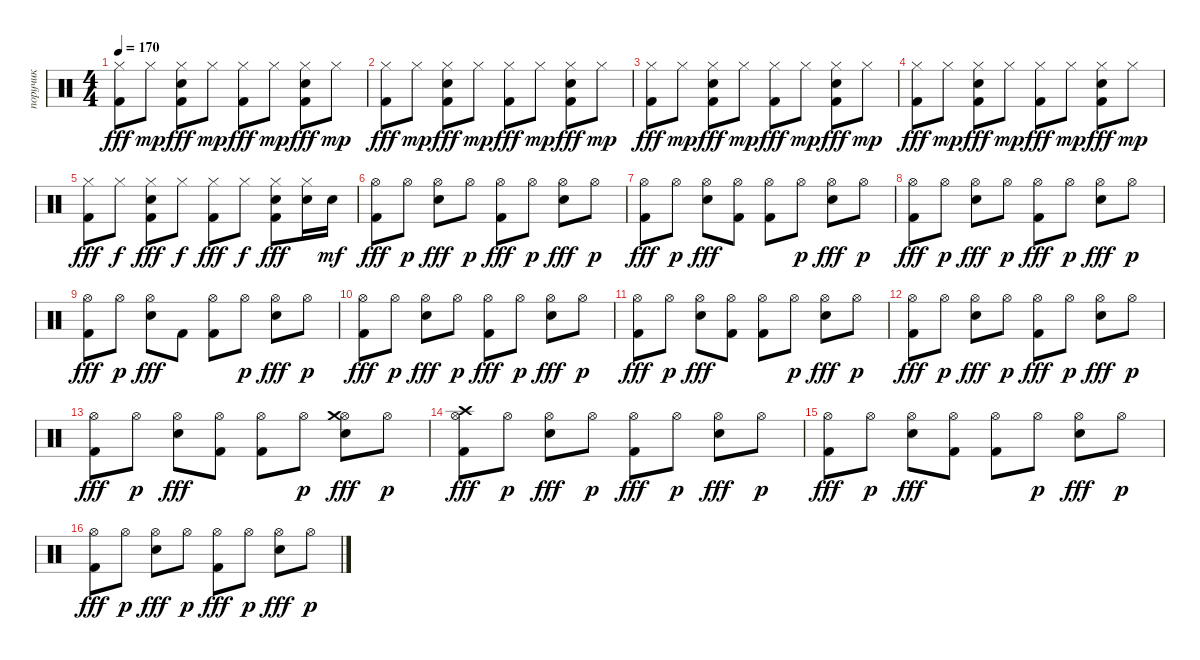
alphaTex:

\track ("поручик" "поручик") {instrument percussion}
\staff {score}
\articulation defaults
\ts (4 4)
\tempo 170
\clef neutral
\ks c
("Hi-Hat (closed)" "Kick (hit) 2").8{dy fff} "Hi-Hat (closed)".8{dy mp} ("Hi-Hat (closed)" "Electric Snare (hit)" "Kick (hit) 2").8{dy fff} "Hi-Hat (closed)".8{dy mp} ("Hi-Hat (closed)" "Kick (hit) 2").8{dy fff} "Hi-Hat (closed)".8{dy mp} ("Hi-Hat (closed)" "Electric Snare (hit)" "Kick (hit) 2").8{dy fff} "Hi-Hat (closed)".8{dy mp} |
("Hi-Hat (closed)" "Kick (hit) 2").8{dy fff} "Hi-Hat (closed)".8{dy mp} ("Hi-Hat (closed)" "Electric Snare (hit)" "Kick (hit) 2").8{dy fff} "Hi-Hat (closed)".8{dy mp} ("Hi-Hat (closed)" "Kick (hit) 2").8{dy fff} "Hi-Hat (closed)".8{dy mp} ("Hi-Hat (closed)" "Electric Snare (hit)" "Kick (hit) 2").8{dy fff} "Hi-Hat (closed)".8{dy mp} |
("Hi-Hat (closed)" "Kick (hit) 2").8{dy fff} "Hi-Hat (closed)".8{dy mp} ("Hi-Hat (closed)" "Electric Snare (hit)" "Kick (hit) 2").8{dy fff} "Hi-Hat (closed)".8{dy mp} ("Hi-Hat (closed)" "Kick (hit) 2").8{dy fff} "Hi-Hat (closed)".8{dy mp} ("Hi-Hat (closed)" "Electric Snare (hit)" "Kick (hit) 2").8{dy fff} "Hi-Hat (closed)".8{dy mp} |
("Hi-Hat (closed)" "Kick (hit) 2").8{dy fff} "Hi-Hat (closed)".8{dy mp} ("Hi-Hat (closed)" "Electric Snare (hit)" "Kick (hit) 2").8{dy fff} "Hi-Hat (closed)".8{dy mp} ("Hi-Hat (closed)" "Kick (hit) 2").8{dy fff} "Hi-Hat (closed)".8{dy mp} ("Hi-Hat (closed)" "Electric Snare (hit)" "Kick (hit) 2").8{dy fff} "Hi-Hat (closed)".8{dy mp} |
("Hi-Hat (closed)" "Kick (hit) 2").8{dy fff} "Hi-Hat (closed)".8{dy f} ("Hi-Hat (closed)" "Electric Snare (hit)" "Kick (hit) 2").8{dy fff} "Hi-Hat (closed)".8{dy f} ("Hi-Hat (closed)" "Kick (hit) 2").8{dy fff} "Hi-Hat (closed)".8{dy f} ("Hi-Hat (closed)" "Electric Snare (hit)" "Kick (hit) 2").8{dy fff} ("Hi-Hat (closed)" "Electric Snare (hit)").16 "Electric Snare (hit)".16{dy mf} |
("Hi-Hat (open)" "Kick (hit) 2").8{dy fff} "Hi-Hat (open)".8{dy p} ("Hi-Hat (open)" "Electric Snare (hit)").8{dy fff} "Hi-Hat (open)".8{dy p} ("Hi-Hat (open)" "Kick (hit) 2").8{dy fff} "Hi-Hat (open)".8{dy p} ("Hi-Hat (open)" "Electric Snare (hit)").8{dy fff} "Hi-Hat (open)".8{dy p} |
("Hi-Hat (open)" "Kick (hit) 2").8{dy fff} "Hi-Hat (open)".8{dy p} ("Hi-Hat (open)" "Electric Snare (hit)").8{dy fff} ("Hi-Hat (open)" "Kick (hit) 2").8 ("Hi-Hat (open)" "Kick (hit) 2").8 "Hi-Hat (open)".8{dy p} ("Hi-Hat (open)" "Electric Snare (hit)").8{dy fff} "Hi-Hat (open)".8{dy p} |
("Hi-Hat (open)" "Kick (hit) 2").8{dy fff} "Hi-Hat (open)".8{dy p} ("Hi-Hat (open)" "Electric Snare (hit)").8{dy fff} "Hi-Hat (open)".8{dy p} ("Hi-Hat (open)" "Kick (hit) 2").8{dy fff} "Hi-Hat (open)".8{dy p} ("Hi-Hat (open)" "Electric Snare (hit)").8{dy fff} "Hi-Hat (open)".8{dy p} |
("Hi-Hat (open)" "Kick (hit) 2").8{dy fff} "Hi-Hat (open)".8{dy p} ("Hi-Hat (open)" "Electric Snare (hit)").8{dy fff} "Kick (hit) 2".8 ("Hi-Hat (open)" "Kick (hit) 2").8 "Hi-Hat (open)".8{dy p} ("Hi-Hat (open)" "Electric Snare (hit)").8{dy fff} "Hi-Hat (open)".8{dy p} |
("Hi-Hat (open)" "Kick (hit) 2").8{dy fff} "Hi-Hat (open)".8{dy p} ("Hi-Hat (open)" "Electric Snare (hit)").8{dy fff} "Hi-Hat (open)".8{dy p} ("Hi-Hat (open)" "Kick (hit) 2").8{dy fff} "Hi-Hat (open)".8{dy p} ("Hi-Hat (open)" "Electric Snare (hit)").8{dy fff} "Hi-Hat (open)".8{dy p} |
("Hi-Hat (open)" "Kick (hit) 2").8{dy fff} "Hi-Hat (open)".8{dy p} ("Hi-Hat (open)" "Electric Snare (hit)").8{dy fff} ("Hi-Hat (open)" "Kick (hit) 2").8 ("Hi-Hat (open)" "Kick (hit) 2").8 "Hi-Hat (open)".8{dy p} ("Hi-Hat (open)" "Electric Snare (hit)").8{dy fff} "Hi-Hat (open)".8{dy p} |
("Hi-Hat (open)" "Kick (hit) 2").8{dy fff} "Hi-Hat (open)".8{dy p} ("Hi-Hat (open)" "Electric Snare (hit)").8{dy fff} "Hi-Hat (open)".8{dy p} ("Hi-Hat (open)" "Kick (hit) 2").8{dy fff} "Hi-Hat (open)".8{dy p} ("Hi-Hat (open)" "Electric Snare (hit)").8{dy fff} "Hi-Hat (open)".8{dy p} |
("Hi-Hat (open)" "Kick (hit) 2").8{dy fff} "Hi-Hat (open)".8{dy p} ("Hi-Hat (open)" "Electric Snare (hit)").8{dy fff} ("Hi-Hat (open)" "Kick (hit) 2").8 ("Hi-Hat (open)" "Kick (hit) 2").8 "Hi-Hat (open)".8{dy p} ("Hi-Hat (open)" "Crash medium (hit)" "Electric Snare (hit)").8{dy fff} "Hi-Hat (open)".8{dy p} |
("Hi-Hat (open)" "Crash high (hit)" "Kick (hit) 2").8{dy fff} "Hi-Hat (open)".8{dy p} ("Hi-Hat (open)" "Electric Snare (hit)").8{dy fff} "Hi-Hat (open)".8{dy p} ("Hi-Hat (open)" "Kick (hit) 2").8{dy fff} "Hi-Hat (open)".8{dy p} ("Hi-Hat (open)" "Electric Snare (hit)").8{dy fff} "Hi-Hat (open)".8{dy p} |
("Hi-Hat (open)" "Kick (hit) 2").8{dy fff} "Hi-Hat (open)".8{dy p} ("Hi-Hat (open)" "Electric Snare (hit)").8{dy fff} ("Hi-Hat (open)" "Kick (hit) 2").8 ("Hi-Hat (open)" "Kick (hit) 2").8 "Hi-Hat (open)".8{dy p} ("Hi-Hat (open)" "Electric Snare (hit)").8{dy fff} "Hi-Hat (open)".8{dy p} |
("Hi-Hat (open)" "Kick (hit) 2").8{dy fff} "Hi-Hat (open)".8{dy p} ("Hi-Hat (open)" "Electric Snare (hit)").8{dy fff} "Hi-Hat (open)".8{dy p} ("Hi-Hat (open)" "Kick (hit) 2").8{dy fff} "Hi-Hat (open)".8{dy p} ("Hi-Hat (open)" "Electric Snare (hit)").8{dy fff} "Hi-Hat (open)".8{dy p}
